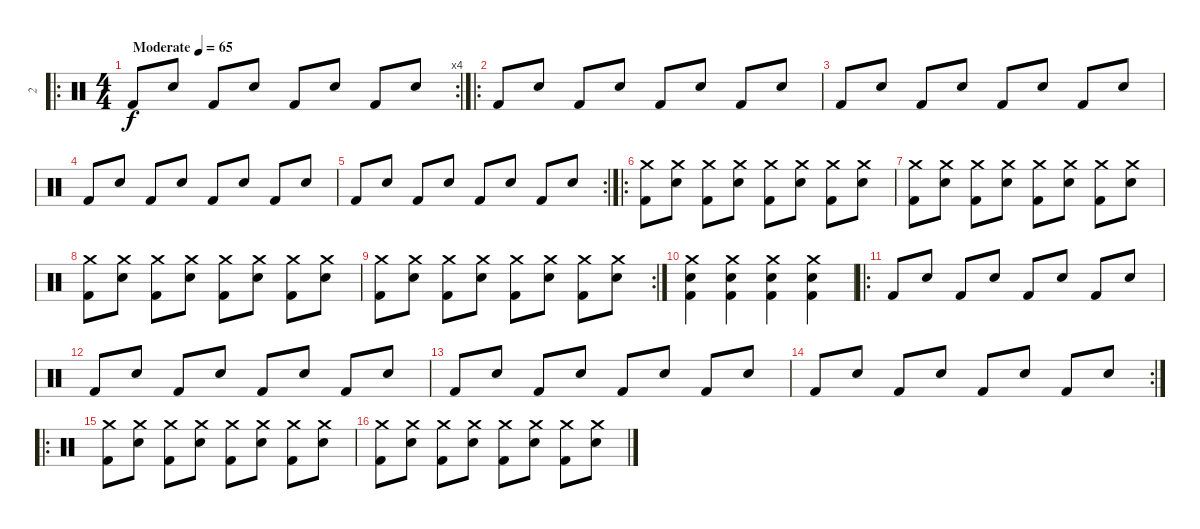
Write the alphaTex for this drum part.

\track (" 2" " 2") {instrument percussion}
\staff {score}
\articulation defaults
\ro
\rc 4
\ts (4 4)
\tempo (65 "Moderate")
\clef neutral
\ks c "Kick (hit) 2".8{dy f} "Snare (hit) 2".8 "Kick (hit) 2".8 "Snare (hit) 2".8 "Kick (hit) 2".8 "Snare (hit) 2".8 "Kick (hit) 2".8 "Snare (hit) 2".8
|
\ro "Kick (hit) 2".8 "Snare (hit) 2".8 "Kick (hit) 2".8 "Snare (hit) 2".8 "Kick (hit) 2".8 "Snare (hit) 2".8 "Kick (hit) 2".8 "Snare (hit) 2".8
|
"Kick (hit) 2".8 "Snare (hit) 2".8 "Kick (hit) 2".8 "Snare (hit) 2".8 "Kick (hit) 2".8 "Snare (hit) 2".8 "Kick (hit) 2".8 "Snare (hit) 2".8 |
"Kick (hit) 2".8 "Snare (hit) 2".8 "Kick (hit) 2".8 "Snare (hit) 2".8 "Kick (hit) 2".8 "Snare (hit) 2".8 "Kick (hit) 2".8 "Snare (hit) 2".8 |
\rc 2 "Kick (hit) 2".8 "Snare (hit) 2".8 "Kick (hit) 2".8 "Snare (hit) 2".8 "Kick (hit) 2".8 "Snare (hit) 2".8 "Kick (hit) 2".8 "Snare (hit) 2".8
|
\ro
("Crash medium (hit)" "Kick (hit) 2").8 ("Crash medium (hit)" "Snare (hit) 2").8 ("Crash medium (hit)" "Kick (hit) 2").8 ("Crash medium (hit)" "Snare (hit) 2").8 ("Crash medium (hit)" "Kick (hit) 2").8 ("Crash medium (hit)" "Snare (hit) 2").8 ("Crash medium (hit)" "Kick (hit) 2").8 ("Crash medium (hit)" "Snare (hit) 2").8 |
("Crash medium (hit)" "Kick (hit) 2").8 ("Crash medium (hit)" "Snare (hit) 2").8 ("Crash medium (hit)" "Kick (hit) 2").8 ("Crash medium (hit)" "Snare (hit) 2").8 ("Crash medium (hit)" "Kick (hit) 2").8 ("Crash medium (hit)" "Snare (hit) 2").8 ("Crash medium (hit)" "Kick (hit) 2").8 ("Crash medium (hit)" "Snare (hit) 2").8 |
("Crash medium (hit)" "Kick (hit) 2").8 ("Crash medium (hit)" "Snare (hit) 2").8 ("Crash medium (hit)" "Kick (hit) 2").8 ("Crash medium (hit)" "Snare (hit) 2").8 ("Crash medium (hit)" "Kick (hit) 2").8 ("Crash medium (hit)" "Snare (hit) 2").8 ("Crash medium (hit)" "Kick (hit) 2").8 ("Crash medium (hit)" "Snare (hit) 2").8 |
\rc 2
("Crash medium (hit)" "Kick (hit) 2").8 ("Crash medium (hit)" "Snare (hit) 2").8 ("Crash medium (hit)" "Kick (hit) 2").8 ("Crash medium (hit)" "Snare (hit) 2").8 ("Crash medium (hit)" "Kick (hit) 2").8 ("Crash medium (hit)" "Snare (hit) 2").8 ("Crash medium (hit)" "Kick (hit) 2").8 ("Crash medium (hit)" "Snare (hit) 2").8 |
("Crash medium (hit)" "Snare (hit) 2" "Kick (hit) 2").4 ("Crash medium (hit)" "Snare (hit) 2" "Kick (hit) 2").4 ("Crash medium (hit)" "Snare (hit) 2" "Kick (hit) 2").4 ("Crash medium (hit)" "Snare (hit) 2" "Kick (hit) 2").4 |
\ro "Kick (hit) 2".8 "Snare (hit) 2".8 "Kick (hit) 2".8 "Snare (hit) 2".8 "Kick (hit) 2".8 "Snare (hit) 2".8 "Kick (hit) 2".8 "Snare (hit) 2".8
|
"Kick (hit) 2".8 "Snare (hit) 2".8 "Kick (hit) 2".8 "Snare (hit) 2".8 "Kick (hit) 2".8 "Snare (hit) 2".8 "Kick (hit) 2".8 "Snare (hit) 2".8 |
"Kick (hit) 2".8 "Snare (hit) 2".8 "Kick (hit) 2".8 "Snare (hit) 2".8 "Kick (hit) 2".8 "Snare (hit) 2".8 "Kick (hit) 2".8 "Snare (hit) 2".8 |
\rc 2 "Kick (hit) 2".8 "Snare (hit) 2".8 "Kick (hit) 2".8 "Snare (hit) 2".8 "Kick (hit) 2".8 "Snare (hit) 2".8 "Kick (hit) 2".8 "Snare (hit) 2".8
|
\ro
("Crash medium (hit)" "Kick (hit) 2").8 ("Crash medium (hit)" "Snare (hit) 2").8 ("Crash medium (hit)" "Kick (hit) 2").8 ("Crash medium (hit)" "Snare (hit) 2").8 ("Crash medium (hit)" "Kick (hit) 2").8 ("Crash medium (hit)" "Snare (hit) 2").8 ("Crash medium (hit)" "Kick (hit) 2").8 ("Crash medium (hit)" "Snare (hit) 2").8 |
("Crash medium (hit)" "Kick (hit) 2").8 ("Crash medium (hit)" "Snare (hit) 2").8 ("Crash medium (hit)" "Kick (hit) 2").8 ("Crash medium (hit)" "Snare (hit) 2").8 ("Crash medium (hit)" "Kick (hit) 2").8 ("Crash medium (hit)" "Snare (hit) 2").8 ("Crash medium (hit)" "Kick (hit) 2").8 ("Crash medium (hit)" "Snare (hit) 2").8
